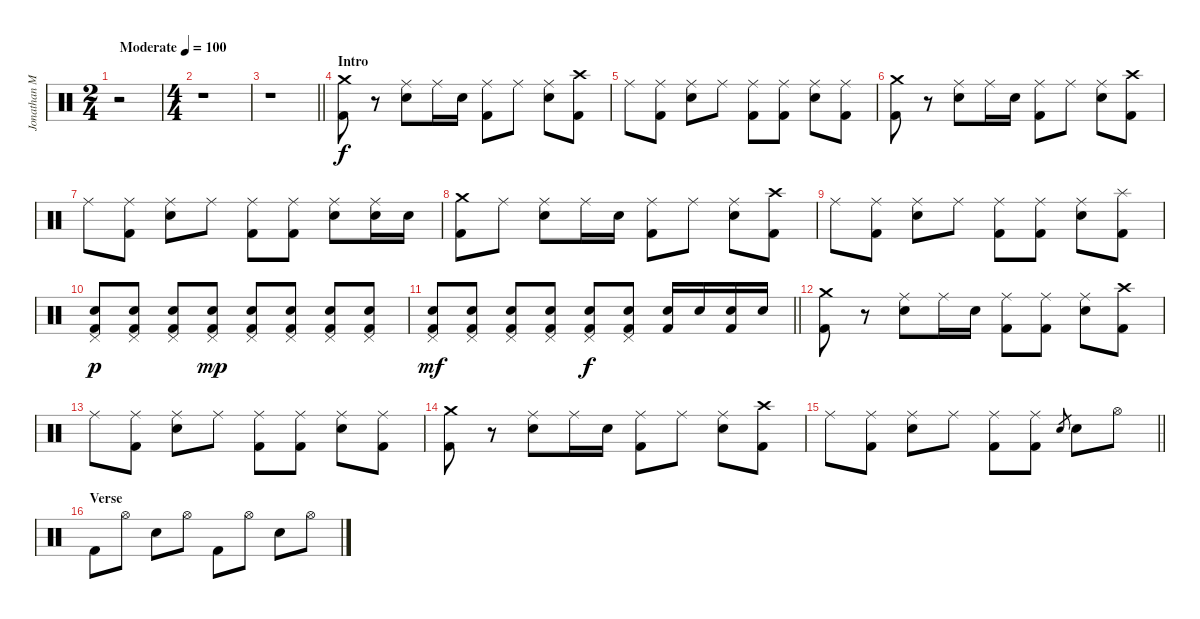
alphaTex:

\track ("Jonathan Mover (Studio Drummer)" "Jonathan M") {instrument percussion}
\staff {score}
\articulation defaults
\ts (2 4)
\tempo (100 "Moderate")
\clef neutral
\ks c
r.2{dy f} |
\ts (4 4)
r.1 |
\barLineRight lightlight
r.1 |
\section ("" "Intro")
("Crash medium (hit)" "Kick (hit) 2").8 r.8 ("Ride (middle)" "Snare (hit) 2").8 "Ride (middle)".16 "Snare (hit) 2".16 ("Ride (middle)" "Kick (hit) 2").8 "Ride (middle)".8 ("Ride (middle)" "Snare (hit) 2").8 ("Crash high (hit)" "Kick (hit) 2").8 |
"Ride (middle)".8 ("Ride (middle)" "Kick (hit) 2").8 ("Ride (middle)" "Snare (hit) 2").8 "Ride (middle)".8 ("Ride (middle)" "Kick (hit) 2").8 ("Ride (middle)" "Kick (hit) 2").8 ("Ride (middle)" "Snare (hit) 2").8 ("Ride (middle)" "Kick (hit) 2").8 |
("Crash medium (hit)" "Kick (hit) 2").8 r.8 ("Ride (middle)" "Snare (hit) 2").8 "Ride (middle)".16 "Snare (hit) 2".16 ("Ride (middle)" "Kick (hit) 2").8 "Ride (middle)".8 ("Ride (middle)" "Snare (hit) 2").8 ("Crash high (hit)" "Kick (hit) 2").8 |
"Ride (middle)".8 ("Ride (middle)" "Kick (hit) 2").8 ("Ride (middle)" "Snare (hit) 2").8 "Ride (middle)".8 ("Ride (middle)" "Kick (hit) 2").8 ("Ride (middle)" "Kick (hit) 2").8 ("Ride (middle)" "Snare (hit) 2").8 ("Ride (middle)" "Snare (hit) 2").16 "Snare (hit) 2".16 |
("Crash medium (hit)" "Kick (hit) 2").8 "Ride (middle)".8 ("Ride (middle)" "Snare (hit) 2").8 "Ride (middle)".16 "Snare (hit) 2".16 ("Ride (middle)" "Kick (hit) 2").8 "Ride (middle)".8 ("Ride (middle)" "Snare (hit) 2").8 ("Crash high (hit)" "Kick (hit) 2").8 |
"Ride (middle)".8 ("Ride (middle)" "Kick (hit) 2").8 ("Ride (middle)" "Snare (hit) 2").8 "Ride (middle)".8 ("Ride (middle)" "Kick (hit) 2").8 ("Ride (middle)" "Kick (hit) 2").8 ("Ride (middle)" "Snare (hit) 2").8 ("Splash (hit)" "Kick (hit) 2").8 |
("Pedal Hi-Hat (hit)" "Snare (hit) 2" "Kick (hit) 2").8{dy p} ("Pedal Hi-Hat (hit)" "Snare (hit) 2" "Kick (hit) 2").8 ("Pedal Hi-Hat (hit)" "Snare (hit) 2" "Kick (hit) 2").8 ("Pedal Hi-Hat (hit)" "Snare (hit) 2" "Kick (hit) 2").8{dy mp} ("Pedal Hi-Hat (hit)" "Snare (hit) 2" "Kick (hit) 2").8 ("Pedal Hi-Hat (hit)" "Snare (hit) 2" "Kick (hit) 2").8 ("Pedal Hi-Hat (hit)" "Snare (hit) 2" "Kick (hit) 2").8 ("Pedal Hi-Hat (hit)" "Snare (hit) 2" "Kick (hit) 2").8 |
\barLineRight lightlight
("Pedal Hi-Hat (hit)" "Snare (hit) 2" "Kick (hit) 2").8{dy mf} ("Pedal Hi-Hat (hit)" "Snare (hit) 2" "Kick (hit) 2").8 ("Pedal Hi-Hat (hit)" "Snare (hit) 2" "Kick (hit) 2").8 ("Pedal Hi-Hat (hit)" "Snare (hit) 2" "Kick (hit) 2").8 ("Pedal Hi-Hat (hit)" "Snare (hit) 2" "Kick (hit) 2").8{dy f} ("Pedal Hi-Hat (hit)" "Snare (hit) 2" "Kick (hit) 2").8 ("Snare (hit) 2" "Kick (hit) 2").16 "Snare (hit) 2".16 ("Snare (hit) 2" "Kick (hit) 2").16 "Snare (hit) 2".16 |
("Crash medium (hit)" "Kick (hit) 2").8 r.8 ("Ride (middle)" "Snare (hit) 2").8 "Ride (middle)".16 "Snare (hit) 2".16 ("Ride (middle)" "Kick (hit) 2").8 ("Ride (middle)" "Kick (hit) 2").8 ("Ride (middle)" "Snare (hit) 2").8 ("Crash high (hit)" "Kick (hit) 2").8 |
"Ride (middle)".8 ("Ride (middle)" "Kick (hit) 2").8 ("Ride (middle)" "Snare (hit) 2").8 "Ride (middle)".8 ("Ride (middle)" "Kick (hit) 2").8 ("Ride (middle)" "Kick (hit) 2").8 ("Ride (middle)" "Snare (hit) 2").8 ("Ride (middle)" "Kick (hit) 2").8 |
("Crash medium (hit)" "Kick (hit) 2").8 r.8 ("Ride (middle)" "Snare (hit) 2").8 "Ride (middle)".16 "Snare (hit) 2".16 ("Ride (middle)" "Kick (hit) 2").8 "Ride (middle)".8 ("Ride (middle)" "Snare (hit) 2").8 ("Crash high (hit)" "Kick (hit) 2").8 |
\barLineRight lightlight "Ride (middle)".8
("Ride (middle)" "Kick (hit) 2").8 ("Ride (middle)" "Snare (hit) 2").8 "Ride (middle)".8 ("Ride (middle)" "Kick (hit) 2").8 ("Ride (middle)" "Kick (hit) 2").8 "Snare (hit) 2".8{gr} "Snare (hit) 2".8 "Hi-Hat (open)".8 |
\section ("" "Verse")
"Kick (hit) 2".8 "Hi-Hat (open)".8 "Snare (hit) 2".8 "Hi-Hat (open)".8 "Kick (hit) 2".8 "Hi-Hat (open)".8 "Snare (hit) 2".8 "Hi-Hat (open)".8
